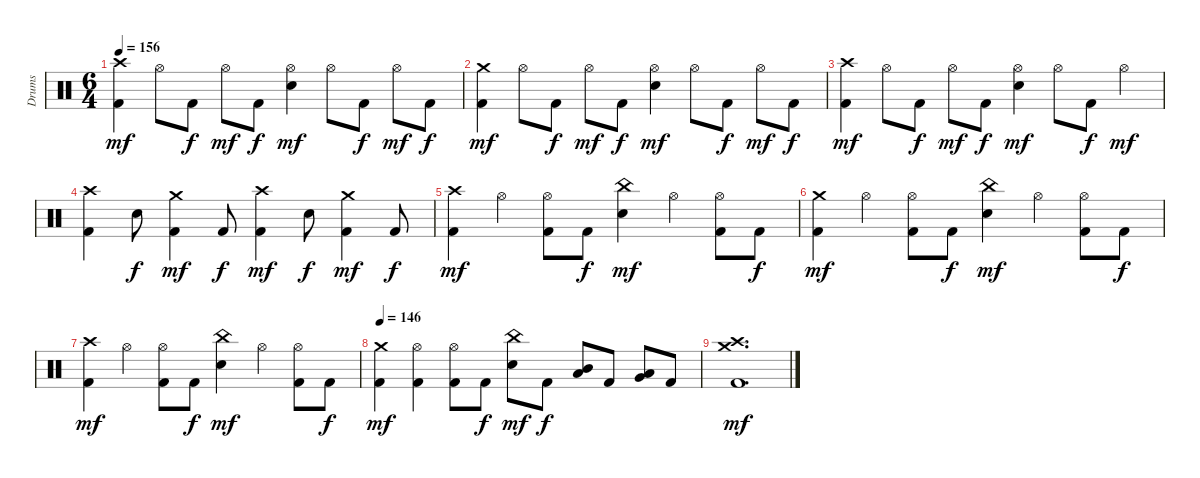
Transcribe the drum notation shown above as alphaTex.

\track ("Drums" "Drums") {instrument percussion}
\staff {score}
\articulation defaults
\ts (6 4)
\tempo 156
\clef neutral
\ks c
("Crash high (hit)" "Kick (hit) 2").4{dy mf} "Hi-Hat (open)".8 "Kick (hit) 2".8{dy f} "Hi-Hat (open)".8{dy mf} "Kick (hit) 2".8{dy f} ("Hi-Hat (open)" "Electric Snare (hit)").4{dy mf} "Hi-Hat (open)".8 "Kick (hit) 2".8{dy f} "Hi-Hat (open)".8{dy mf} "Kick (hit) 2".8{dy f} |
("Crash medium (hit)" "Kick (hit) 2").4{dy mf} "Hi-Hat (open)".8 "Kick (hit) 2".8{dy f} "Hi-Hat (open)".8{dy mf} "Kick (hit) 2".8{dy f} ("Hi-Hat (open)" "Electric Snare (hit)").4{dy mf} "Hi-Hat (open)".8 "Kick (hit) 2".8{dy f} "Hi-Hat (open)".8{dy mf} "Kick (hit) 2".8{dy f} |
("Crash high (hit)" "Kick (hit) 2").4{dy mf} "Hi-Hat (open)".8 "Kick (hit) 2".8{dy f} "Hi-Hat (open)".8{dy mf} "Kick (hit) 2".8{dy f} ("Hi-Hat (open)" "Electric Snare (hit)").4{dy mf} "Hi-Hat (open)".8 "Kick (hit) 2".8{dy f} "Hi-Hat (open)".4{dy mf} |
("Crash high (hit)" "Kick (hit) 2").4 "Electric Snare (hit)".8{dy f} ("Crash medium (hit)" "Kick (hit) 2").4{dy mf} "Kick (hit) 2".8{dy f} ("Crash high (hit)" "Kick (hit) 2").4{dy mf} "Electric Snare (hit)".8{dy f} ("Crash medium (hit)" "Kick (hit) 2").4{dy mf} "Kick (hit) 2".8{dy f} |
("Crash high (hit)" "Kick (hit) 2").4{dy mf} "Hi-Hat (open)".4 ("Hi-Hat (open)" "Kick (hit) 2").8 "Kick (hit) 2".8{dy f} ("China (hit)" "Electric Snare (hit)").4{dy mf} "Hi-Hat (open)".4 ("Hi-Hat (open)" "Kick (hit) 2").8 "Kick (hit) 2".8{dy f} |
("Crash medium (hit)" "Kick (hit) 2").4{dy mf} "Hi-Hat (open)".4 ("Hi-Hat (open)" "Kick (hit) 2").8 "Kick (hit) 2".8{dy f} ("China (hit)" "Electric Snare (hit)").4{dy mf} "Hi-Hat (open)".4 ("Hi-Hat (open)" "Kick (hit) 2").8 "Kick (hit) 2".8{dy f} |
("Crash high (hit)" "Kick (hit) 2").4{dy mf} "Hi-Hat (open)".4 ("Hi-Hat (open)" "Kick (hit) 2").8 "Kick (hit) 2".8{dy f} ("China (hit)" "Electric Snare (hit)").4{dy mf} "Hi-Hat (open)".4 ("Hi-Hat (open)" "Kick (hit) 2").8 "Kick (hit) 2".8{dy f} |
\tempo 146
("Crash medium (hit)" "Kick (hit) 2").4{dy mf} ("Hi-Hat (open)" "Kick (hit) 2").4 ("Hi-Hat (open)" "Kick (hit) 2").8 "Kick (hit) 2".8{dy f} ("China (hit)" "Electric Snare (hit)").8{dy mf} "Kick (hit) 2".8{dy f} ("Mid Tom (hit)" "Low Tom (hit)").8 "Kick (hit) 2".8 ("Low Tom (hit)" "Very Low Tom (hit)").8 "Kick (hit) 2".8 |
("Crash medium (hit)" "Crash high (hit)" "Kick (hit) 2").1{d dy mf}
